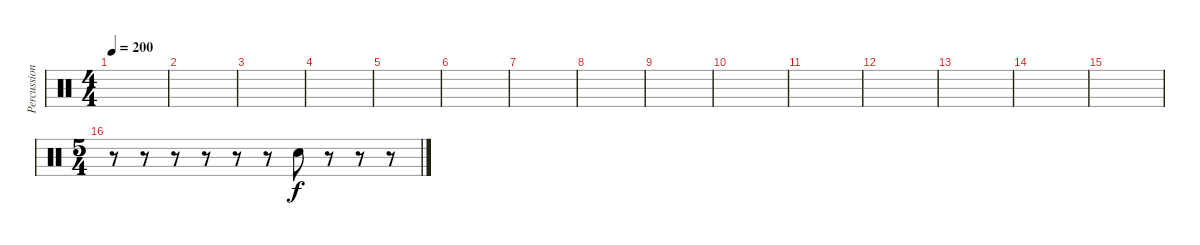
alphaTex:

\track ("Percussion" "Percussion") {instrument percussion}
\staff {score}
\articulation defaults
\ts (4 4)
\tempo 200
\clef neutral
\ks c
|
|
|
|
|
|
|
|
|
|
|
|
|
|
|
\ts (5 4)
r.8 r.8 r.8 r.8 r.8 r.8 "Snare (hit) 2".8 r.8 r.8 r.8
